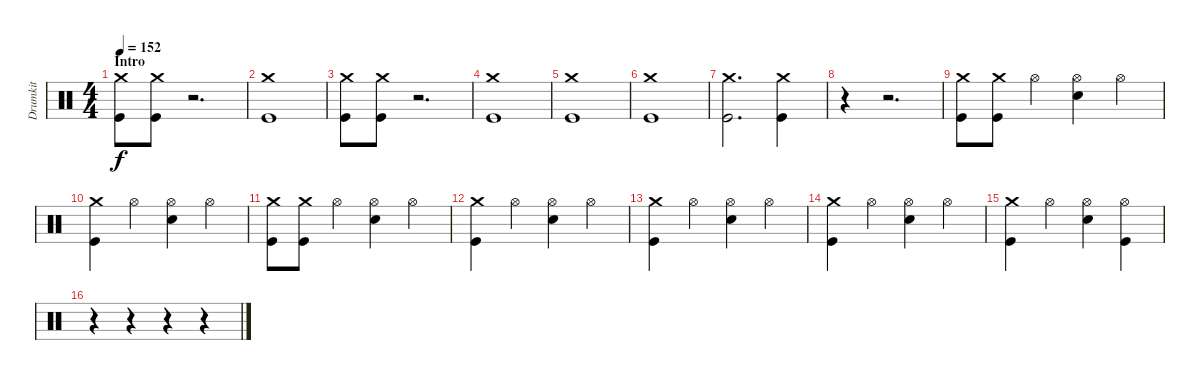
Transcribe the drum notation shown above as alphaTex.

\track ("Drumkit" "Drumkit") {instrument percussion}
\staff {score}
\articulation defaults
\ts (4 4)
\section ("" "Intro")
\tempo 152
\clef neutral
\ks c
("Crash medium (hit)" "Kick (hit)").8{dy f} ("Crash medium (hit)" "Kick (hit)").8 r.2{d} |
("Crash medium (hit)" "Kick (hit)").1 |
("Crash medium (hit)" "Kick (hit)").8 ("Crash medium (hit)" "Kick (hit)").8 r.2{d} |
("Crash medium (hit)" "Kick (hit)").1 |
("Crash medium (hit)" "Kick (hit)").1 |
("Crash medium (hit)" "Kick (hit)").1 |
("Crash medium (hit)" "Kick (hit)").2{d} ("Crash medium (hit)" "Kick (hit)").4 |
r.4 r.2{d} |
("Crash medium (hit)" "Kick (hit)").8 ("Crash medium (hit)" "Kick (hit)").8 "Hi-Hat (open)".4 ("Hi-Hat (open)" "Snare (hit) 2").4 "Hi-Hat (open)".4 |
("Crash medium (hit)" "Kick (hit)").4 "Hi-Hat (open)".4 ("Hi-Hat (open)" "Snare (hit) 2").4 "Hi-Hat (open)".4 |
("Crash medium (hit)" "Kick (hit)").8 ("Crash medium (hit)" "Kick (hit)").8 "Hi-Hat (open)".4 ("Hi-Hat (open)" "Snare (hit) 2").4 "Hi-Hat (open)".4 |
("Crash medium (hit)" "Kick (hit)").4 "Hi-Hat (open)".4 ("Hi-Hat (open)" "Snare (hit) 2").4 "Hi-Hat (open)".4 |
("Crash medium (hit)" "Kick (hit)").4 "Hi-Hat (open)".4 ("Hi-Hat (open)" "Snare (hit) 2").4 "Hi-Hat (open)".4 |
("Crash medium (hit)" "Kick (hit)").4 "Hi-Hat (open)".4 ("Hi-Hat (open)" "Snare (hit) 2").4 "Hi-Hat (open)".4 |
("Crash medium (hit)" "Kick (hit)").4 "Hi-Hat (open)".4 ("Hi-Hat (open)" "Snare (hit) 2").4 ("Hi-Hat (open)" "Kick (hit)").4 |
r.4 r.4 r.4 r.4
